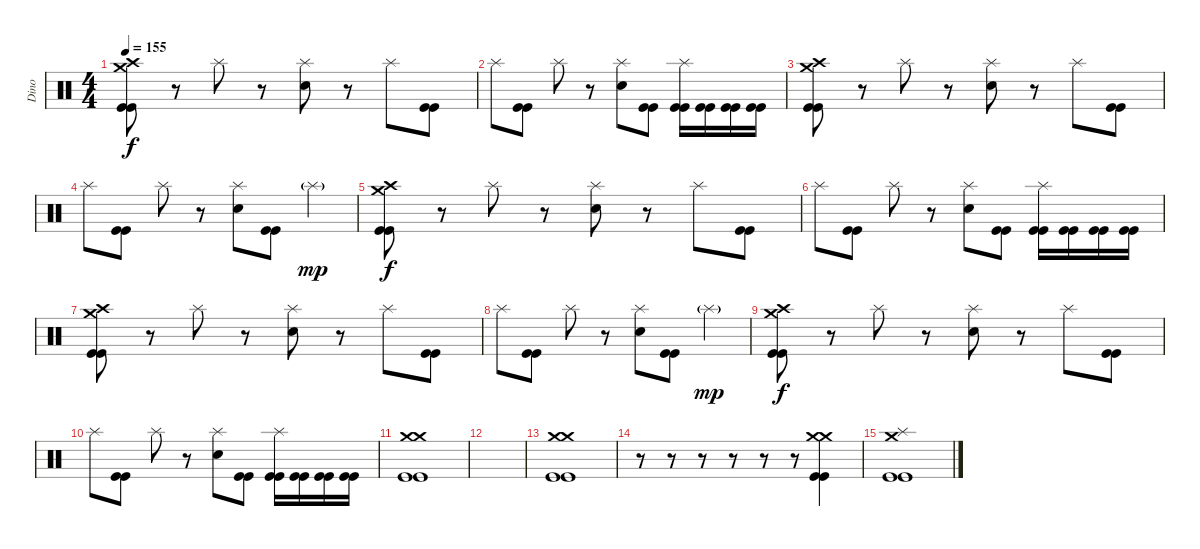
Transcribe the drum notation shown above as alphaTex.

\track ("Dino" "Dino") {instrument percussion}
\staff {score}
\articulation defaults
\ts (4 4)
\tempo 155
\clef neutral
\ks c
("Crash medium (hit)" "Crash high (hit)" "Kick (hit)" "Kick (hit)").8{dy f} r.8 "Splash (hit)".8 r.8 ("Splash (hit)" "Electric Snare (hit)").8 r.8 "Splash (hit)".8 ("Kick (hit)" "Kick (hit)").8 |
"Splash (hit)".8 ("Kick (hit)" "Kick (hit)").8 "Splash (hit)".8 r.8 ("Splash (hit)" "Electric Snare (hit)").8 ("Kick (hit)" "Kick (hit)").8 ("Splash (hit)" "Kick (hit)" "Kick (hit)").16 ("Kick (hit)" "Kick (hit)").16 ("Kick (hit)" "Kick (hit)").16 ("Kick (hit)" "Kick (hit)").16 |
("Crash medium (hit)" "Crash high (hit)" "Kick (hit)" "Kick (hit)").8 r.8 "Splash (hit)".8 r.8 ("Splash (hit)" "Electric Snare (hit)").8 r.8 "Splash (hit)".8 ("Kick (hit)" "Kick (hit)").8 |
"Splash (hit)".8 ("Kick (hit)" "Kick (hit)").8 "Splash (hit)".8 r.8 ("Splash (hit)" "Electric Snare (hit)").8 ("Kick (hit)" "Kick (hit)").8 "Splash (hit)"{g}.4{dy mp} |
("Crash medium (hit)" "Crash high (hit)" "Kick (hit)" "Kick (hit)").8{dy f} r.8 "Splash (hit)".8 r.8 ("Splash (hit)" "Electric Snare (hit)").8 r.8 "Splash (hit)".8 ("Kick (hit)" "Kick (hit)").8 |
"Splash (hit)".8 ("Kick (hit)" "Kick (hit)").8 "Splash (hit)".8 r.8 ("Splash (hit)" "Electric Snare (hit)").8 ("Kick (hit)" "Kick (hit)").8 ("Splash (hit)" "Kick (hit)" "Kick (hit)").16 ("Kick (hit)" "Kick (hit)").16 ("Kick (hit)" "Kick (hit)").16 ("Kick (hit)" "Kick (hit)").16 |
("Crash medium (hit)" "Crash high (hit)" "Kick (hit)" "Kick (hit)").8 r.8 "Splash (hit)".8 r.8 ("Splash (hit)" "Electric Snare (hit)").8 r.8 "Splash (hit)".8 ("Kick (hit)" "Kick (hit)").8 |
"Splash (hit)".8 ("Kick (hit)" "Kick (hit)").8 "Splash (hit)".8 r.8 ("Splash (hit)" "Electric Snare (hit)").8 ("Kick (hit)" "Kick (hit)").8 "Splash (hit)"{g}.4{dy mp} |
("Crash medium (hit)" "Crash high (hit)" "Kick (hit)" "Kick (hit)").8{dy f} r.8 "Splash (hit)".8 r.8 ("Splash (hit)" "Electric Snare (hit)").8 r.8 "Splash (hit)".8 ("Kick (hit)" "Kick (hit)").8 |
"Splash (hit)".8 ("Kick (hit)" "Kick (hit)").8 "Splash (hit)".8 r.8 ("Splash (hit)" "Electric Snare (hit)").8 ("Kick (hit)" "Kick (hit)").8 ("Splash (hit)" "Kick (hit)" "Kick (hit)").16 ("Kick (hit)" "Kick (hit)").16 ("Kick (hit)" "Kick (hit)").16 ("Kick (hit)" "Kick (hit)").16 |
("Crash medium (hit)" "Crash medium (hit)" "Kick (hit)" "Kick (hit)").1 |
|
("Crash medium (hit)" "Crash medium (hit)" "Kick (hit)" "Kick (hit)").1 |
r.8 r.8 r.8 r.8 r.8 r.8 ("Crash medium (hit)" "Crash medium (hit)" "Kick (hit)" "Kick (hit)").4 |
("Crash medium (hit)" "Splash (hit)" "Kick (hit)" "Kick (hit)").1
